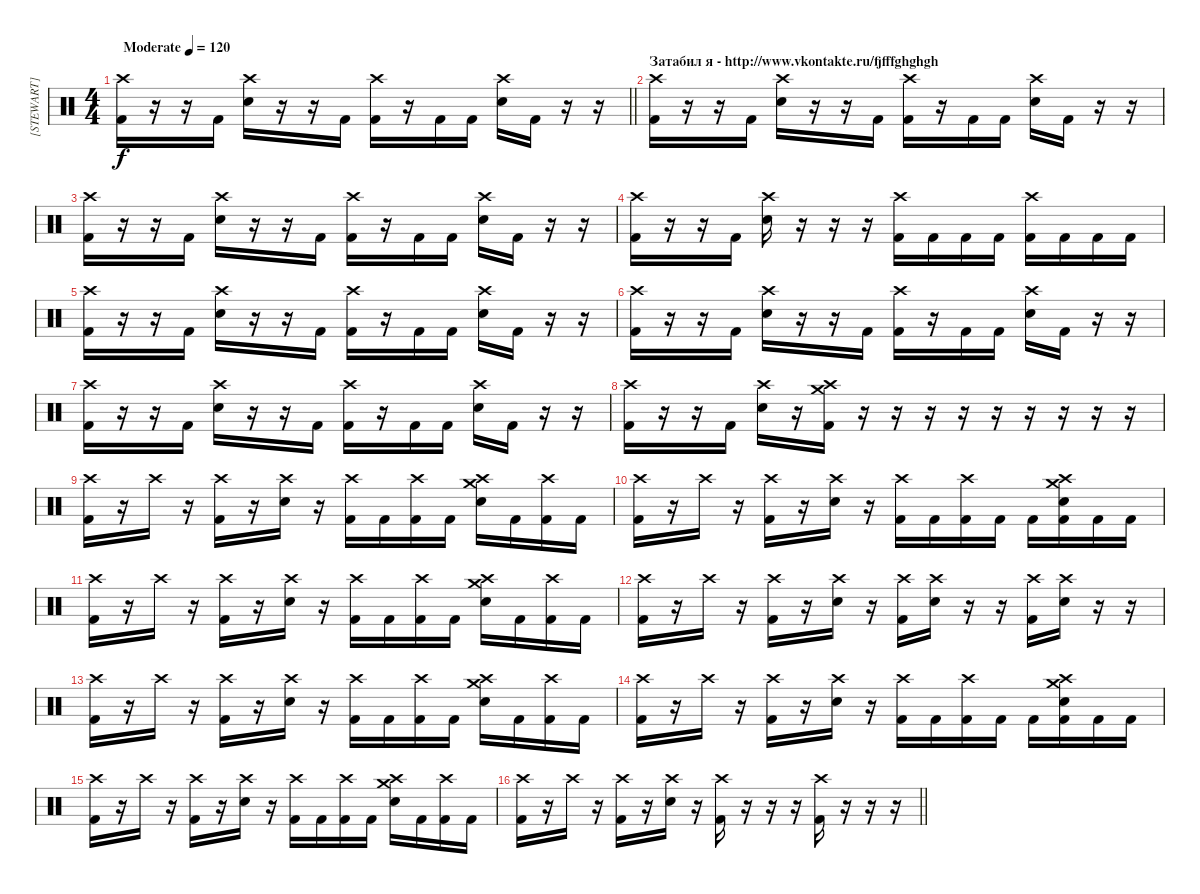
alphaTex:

\track ("[STEWART]" "[STEWART]") {instrument percussion}
\staff {score}
\articulation defaults
\ts (4 4)
\tempo (120 "Moderate")
\clef neutral
\barLineRight lightlight
\ks c
("Crash high (hit)" "Kick (hit) 2").16{dy f} r.16 r.16 "Kick (hit) 2".16 ("Crash high (hit)" "Electric Snare (hit)").16 r.16 r.16 "Kick (hit) 2".16 ("Crash high (hit)" "Kick (hit) 2").16 r.16 "Kick (hit) 2".16 "Kick (hit) 2".16 ("Crash high (hit)" "Electric Snare (hit)").16 "Kick (hit) 2".16 r.16 r.16 |
\section ("" "Затабил я - http://www.vkontakte.ru/fjfffghghgh")
("Crash high (hit)" "Kick (hit) 2").16 r.16 r.16 "Kick (hit) 2".16 ("Crash high (hit)" "Electric Snare (hit)").16 r.16 r.16 "Kick (hit) 2".16 ("Crash high (hit)" "Kick (hit) 2").16 r.16 "Kick (hit) 2".16 "Kick (hit) 2".16 ("Crash high (hit)" "Electric Snare (hit)").16 "Kick (hit) 2".16 r.16 r.16 |
("Crash high (hit)" "Kick (hit) 2").16 r.16 r.16 "Kick (hit) 2".16 ("Crash high (hit)" "Electric Snare (hit)").16 r.16 r.16 "Kick (hit) 2".16 ("Crash high (hit)" "Kick (hit) 2").16 r.16 "Kick (hit) 2".16 "Kick (hit) 2".16 ("Crash high (hit)" "Electric Snare (hit)").16 "Kick (hit) 2".16 r.16 r.16 |
("Crash high (hit)" "Kick (hit) 2").16 r.16 r.16 "Kick (hit) 2".16 ("Crash high (hit)" "Electric Snare (hit)").16 r.16 r.16 r.16 ("Crash high (hit)" "Kick (hit) 2").16 "Kick (hit) 2".16 "Kick (hit) 2".16 "Kick (hit) 2".16 ("Crash high (hit)" "Kick (hit) 2").16 "Kick (hit) 2".16 "Kick (hit) 2".16 "Kick (hit) 2".16 |
("Crash high (hit)" "Kick (hit) 2").16 r.16 r.16 "Kick (hit) 2".16 ("Crash high (hit)" "Electric Snare (hit)").16 r.16 r.16 "Kick (hit) 2".16 ("Crash high (hit)" "Kick (hit) 2").16 r.16 "Kick (hit) 2".16 "Kick (hit) 2".16 ("Crash high (hit)" "Electric Snare (hit)").16 "Kick (hit) 2".16 r.16 r.16 |
("Crash high (hit)" "Kick (hit) 2").16 r.16 r.16 "Kick (hit) 2".16 ("Crash high (hit)" "Electric Snare (hit)").16 r.16 r.16 "Kick (hit) 2".16 ("Crash high (hit)" "Kick (hit) 2").16 r.16 "Kick (hit) 2".16 "Kick (hit) 2".16 ("Crash high (hit)" "Electric Snare (hit)").16 "Kick (hit) 2".16 r.16 r.16 |
("Crash high (hit)" "Kick (hit) 2").16 r.16 r.16 "Kick (hit) 2".16 ("Crash high (hit)" "Electric Snare (hit)").16 r.16 r.16 "Kick (hit) 2".16 ("Crash high (hit)" "Kick (hit) 2").16 r.16 "Kick (hit) 2".16 "Kick (hit) 2".16 ("Crash high (hit)" "Electric Snare (hit)").16 "Kick (hit) 2".16 r.16 r.16 |
("Crash high (hit)" "Kick (hit) 2").16 r.16 r.16 "Kick (hit) 2".16 ("Crash high (hit)" "Electric Snare (hit)").16 r.16 ("Crash high (hit)" "Crash medium (hit)" "Kick (hit) 2").16 r.16 r.16 r.16 r.16 r.16 r.16 r.16 r.16 r.16 |
("Crash high (hit)" "Kick (hit) 2").16 r.16 "Crash high (hit)".16 r.16 ("Crash high (hit)" "Kick (hit) 2").16 r.16 ("Crash high (hit)" "Electric Snare (hit)").16 r.16 ("Crash high (hit)" "Kick (hit) 2").16 "Kick (hit) 2".16 ("Crash high (hit)" "Kick (hit) 2").16 "Kick (hit) 2".16 ("Crash high (hit)" "Crash medium (hit)" "Electric Snare (hit)").16 "Kick (hit) 2".16 ("Crash high (hit)" "Kick (hit) 2").16 "Kick (hit) 2".16 |
("Crash high (hit)" "Kick (hit) 2").16 r.16 "Crash high (hit)".16 r.16 ("Crash high (hit)" "Kick (hit) 2").16 r.16 ("Crash high (hit)" "Electric Snare (hit)").16 r.16 ("Crash high (hit)" "Kick (hit) 2").16 "Kick (hit) 2".16 ("Crash high (hit)" "Kick (hit) 2").16 "Kick (hit) 2".16 "Kick (hit) 2".16 ("Crash high (hit)" "Crash medium (hit)" "Electric Snare (hit)" "Kick (hit) 2").16 "Kick (hit) 2".16 "Kick (hit) 2".16 |
("Crash high (hit)" "Kick (hit) 2").16 r.16 "Crash high (hit)".16 r.16 ("Crash high (hit)" "Kick (hit) 2").16 r.16 ("Crash high (hit)" "Electric Snare (hit)").16 r.16 ("Crash high (hit)" "Kick (hit) 2").16 "Kick (hit) 2".16 ("Crash high (hit)" "Kick (hit) 2").16 "Kick (hit) 2".16 ("Crash high (hit)" "Crash medium (hit)" "Electric Snare (hit)").16 "Kick (hit) 2".16 ("Crash high (hit)" "Kick (hit) 2").16 "Kick (hit) 2".16 |
("Crash high (hit)" "Kick (hit) 2").16 r.16 "Crash high (hit)".16 r.16 ("Crash high (hit)" "Kick (hit) 2").16 r.16 ("Crash high (hit)" "Electric Snare (hit)").16 r.16 ("Crash high (hit)" "Kick (hit) 2").16 ("Crash high (hit)" "Electric Snare (hit)").16 r.16 r.16 ("Crash high (hit)" "Kick (hit) 2").16 ("Crash high (hit)" "Electric Snare (hit)").16 r.16 r.16 |
("Crash high (hit)" "Kick (hit) 2").16 r.16 "Crash high (hit)".16 r.16 ("Crash high (hit)" "Kick (hit) 2").16 r.16 ("Crash high (hit)" "Electric Snare (hit)").16 r.16 ("Crash high (hit)" "Kick (hit) 2").16 "Kick (hit) 2".16 ("Crash high (hit)" "Kick (hit) 2").16 "Kick (hit) 2".16 ("Crash high (hit)" "Crash medium (hit)" "Electric Snare (hit)").16 "Kick (hit) 2".16 ("Crash high (hit)" "Kick (hit) 2").16 "Kick (hit) 2".16 |
("Crash high (hit)" "Kick (hit) 2").16 r.16 "Crash high (hit)".16 r.16 ("Crash high (hit)" "Kick (hit) 2").16 r.16 ("Crash high (hit)" "Electric Snare (hit)").16 r.16 ("Crash high (hit)" "Kick (hit) 2").16 "Kick (hit) 2".16 ("Crash high (hit)" "Kick (hit) 2").16 "Kick (hit) 2".16 "Kick (hit) 2".16 ("Crash high (hit)" "Crash medium (hit)" "Electric Snare (hit)" "Kick (hit) 2").16 "Kick (hit) 2".16 "Kick (hit) 2".16 |
("Crash high (hit)" "Kick (hit) 2").16 r.16 "Crash high (hit)".16 r.16 ("Crash high (hit)" "Kick (hit) 2").16 r.16 ("Crash high (hit)" "Electric Snare (hit)").16 r.16 ("Crash high (hit)" "Kick (hit) 2").16 "Kick (hit) 2".16 ("Crash high (hit)" "Kick (hit) 2").16 "Kick (hit) 2".16 ("Crash high (hit)" "Crash medium (hit)" "Electric Snare (hit)").16 "Kick (hit) 2".16 ("Crash high (hit)" "Kick (hit) 2").16 "Kick (hit) 2".16 |
\barLineRight lightlight
("Crash high (hit)" "Kick (hit) 2").16 r.16 "Crash high (hit)".16 r.16 ("Crash high (hit)" "Kick (hit) 2").16 r.16 ("Crash high (hit)" "Electric Snare (hit)").16 r.16 ("Crash high (hit)" "Kick (hit) 2").16 r.16 r.16 r.16 ("Crash high (hit)" "Kick (hit) 2").16 r.16 r.16 r.16
